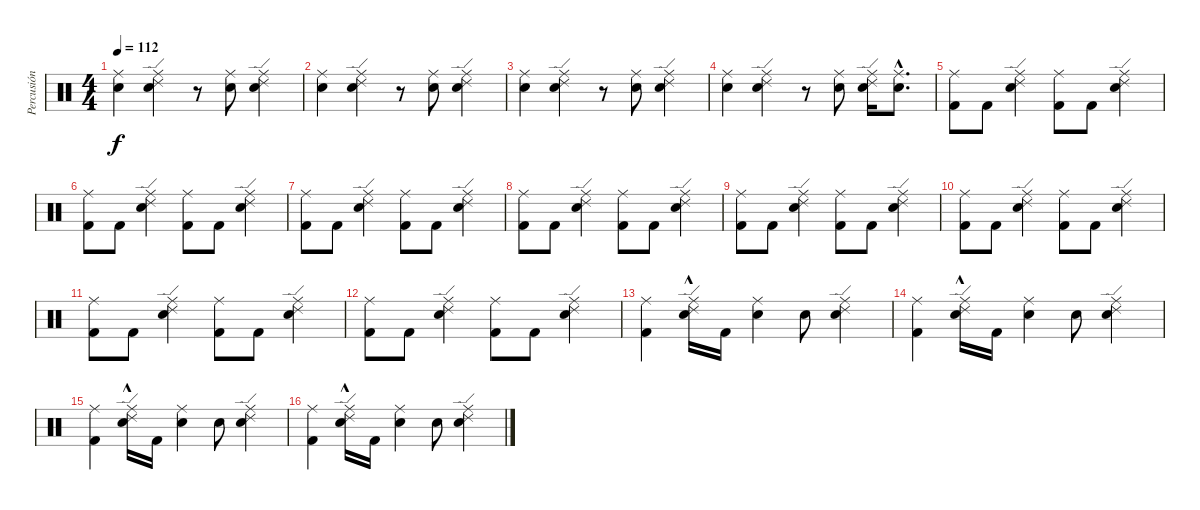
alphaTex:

\track ("Percusión" "Percusión") {instrument percussion}
\staff {score}
\articulation defaults
\ts (4 4)
\tempo 112
\clef neutral
\ks c
("Ride (middle)" "Electric Snare (hit)").4{dy f} ("Ride (edge) 2" "Ride (middle)" "Snare (hit) 2").4 r.8 ("Ride (middle)" "Electric Snare (hit)").8 ("Ride (edge) 2" "Ride (middle)" "Snare (hit) 2").4 |
("Ride (middle)" "Electric Snare (hit)").4 ("Ride (edge) 2" "Ride (middle)" "Snare (hit) 2").4 r.8 ("Ride (middle)" "Electric Snare (hit)").8 ("Ride (edge) 2" "Ride (middle)" "Snare (hit) 2").4 |
("Ride (middle)" "Electric Snare (hit)").4 ("Ride (edge) 2" "Ride (middle)" "Snare (hit) 2").4 r.8 ("Ride (middle)" "Electric Snare (hit)").8 ("Ride (edge) 2" "Ride (middle)" "Snare (hit) 2").4 |
("Ride (middle)" "Electric Snare (hit)").4 ("Ride (edge) 2" "Ride (middle)" "Snare (hit) 2").4 r.8 ("Ride (middle)" "Electric Snare (hit)").8 ("Ride (edge) 2" "Ride (middle)" "Snare (hit) 2").16 ("Ride (middle)"{hac} "Electric Snare (hit)"{hac}).8{d} |
("Ride (middle)" "Kick (hit) 2").8 "Kick (hit) 2".8 ("Ride (edge) 2" "Ride (middle)" "Snare (hit) 2").4 ("Ride (middle)" "Kick (hit) 2").8 "Kick (hit) 2".8 ("Ride (edge) 2" "Ride (middle)" "Snare (hit) 2").4 |
("Ride (middle)" "Kick (hit) 2").8 "Kick (hit) 2".8 ("Ride (edge) 2" "Ride (middle)" "Snare (hit) 2").4 ("Ride (middle)" "Kick (hit) 2").8 "Kick (hit) 2".8 ("Ride (edge) 2" "Ride (middle)" "Snare (hit) 2").4 |
("Ride (middle)" "Kick (hit) 2").8 "Kick (hit) 2".8 ("Ride (edge) 2" "Ride (middle)" "Snare (hit) 2").4 ("Ride (middle)" "Kick (hit) 2").8 "Kick (hit) 2".8 ("Ride (edge) 2" "Ride (middle)" "Snare (hit) 2").4 |
("Ride (middle)" "Kick (hit) 2").8 "Kick (hit) 2".8 ("Ride (edge) 2" "Ride (middle)" "Snare (hit) 2").4 ("Ride (middle)" "Kick (hit) 2").8 "Kick (hit) 2".8 ("Ride (edge) 2" "Ride (middle)" "Snare (hit) 2").4 |
("Ride (middle)" "Kick (hit) 2").8 "Kick (hit) 2".8 ("Ride (edge) 2" "Ride (middle)" "Snare (hit) 2").4 ("Ride (middle)" "Kick (hit) 2").8 "Kick (hit) 2".8 ("Ride (edge) 2" "Ride (middle)" "Snare (hit) 2").4 |
("Ride (middle)" "Kick (hit) 2").8 "Kick (hit) 2".8 ("Ride (edge) 2" "Ride (middle)" "Snare (hit) 2").4 ("Ride (middle)" "Kick (hit) 2").8 "Kick (hit) 2".8 ("Ride (edge) 2" "Ride (middle)" "Snare (hit) 2").4 |
("Ride (middle)" "Kick (hit) 2").8 "Kick (hit) 2".8 ("Ride (edge) 2" "Ride (middle)" "Snare (hit) 2").4 ("Ride (middle)" "Kick (hit) 2").8 "Kick (hit) 2".8 ("Ride (edge) 2" "Ride (middle)" "Snare (hit) 2").4 |
("Ride (middle)" "Kick (hit) 2").8 "Kick (hit) 2".8 ("Ride (edge) 2" "Ride (middle)" "Snare (hit) 2").4 ("Ride (middle)" "Kick (hit) 2").8 "Kick (hit) 2".8 ("Ride (edge) 2" "Ride (middle)" "Snare (hit) 2").4 |
("Ride (middle)" "Kick (hit) 2").4 ("Ride (edge) 2" "Ride (middle)" "Snare (hit) 2"{hac}).16 "Kick (hit) 2".16 ("Ride (middle)" "Snare (hit) 2").4 "Snare (hit) 2".8 ("Ride (edge) 2" "Ride (middle)" "Snare (hit) 2").4 |
("Ride (middle)" "Kick (hit) 2").4 ("Ride (edge) 2" "Ride (middle)" "Snare (hit) 2"{hac}).16 "Kick (hit) 2".16 ("Ride (middle)" "Snare (hit) 2").4 "Snare (hit) 2".8 ("Ride (edge) 2" "Ride (middle)" "Snare (hit) 2").4 |
("Ride (middle)" "Kick (hit) 2").4 ("Ride (edge) 2" "Ride (middle)" "Snare (hit) 2"{hac}).16 "Kick (hit) 2".16 ("Ride (middle)" "Snare (hit) 2").4 "Snare (hit) 2".8 ("Ride (edge) 2" "Ride (middle)" "Snare (hit) 2").4 |
("Ride (middle)" "Kick (hit) 2").4 ("Ride (edge) 2" "Ride (middle)" "Snare (hit) 2"{hac}).16 "Kick (hit) 2".16 ("Ride (middle)" "Snare (hit) 2").4 "Snare (hit) 2".8 ("Ride (edge) 2" "Ride (middle)" "Snare (hit) 2").4
